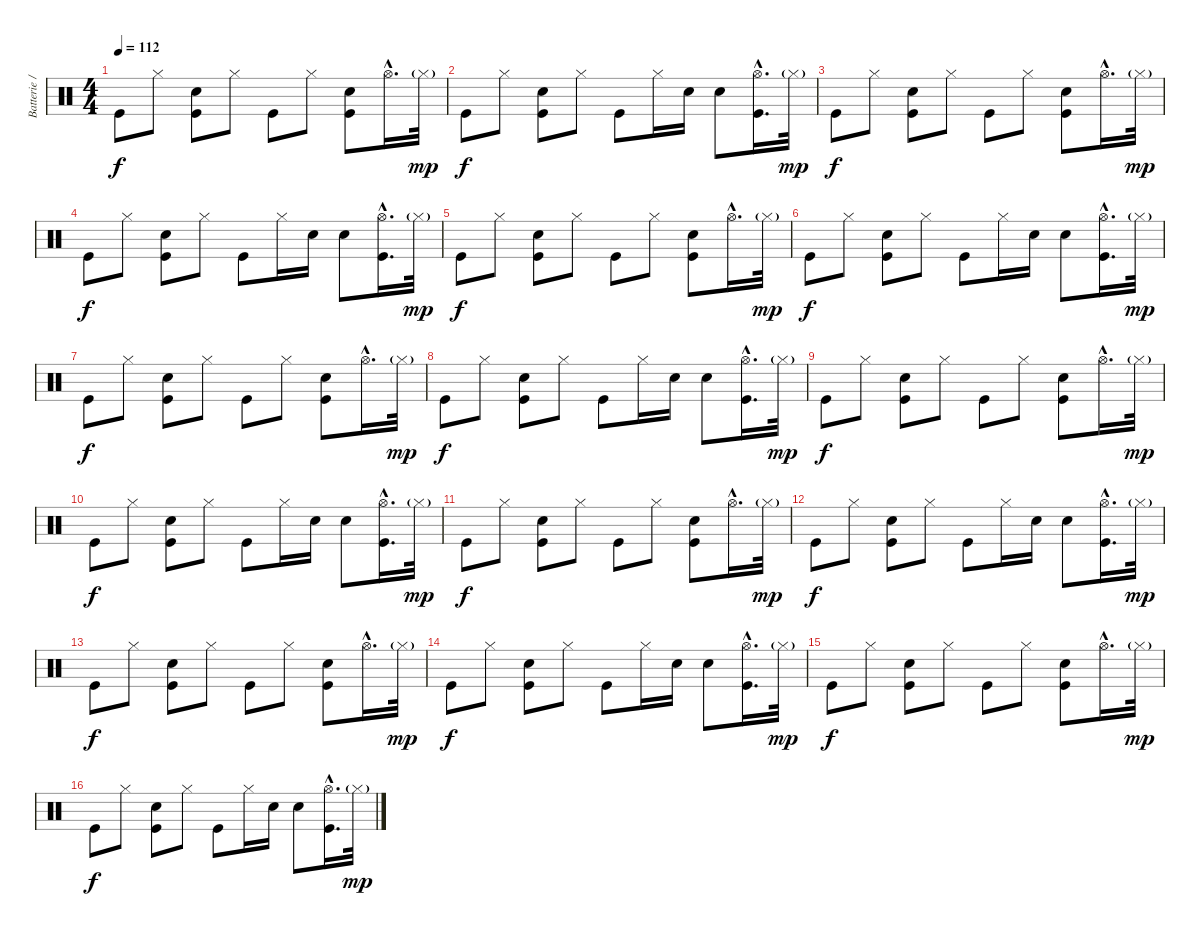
\track ("Batterie // Jerome Dillon" "Batterie /") {instrument percussion}
\staff {score}
\articulation defaults
\ts (4 4)
\tempo 112
\clef neutral
\ks c "Kick (hit)".8{dy f} "Hi-Hat (closed)".8
("Snare (hit) 2" "Kick (hit)").8 "Hi-Hat (closed)".8 "Kick (hit)".8 "Hi-Hat (closed)".8 ("Snare (hit) 2" "Kick (hit)").8 "Hi-Hat (open)"{hac}.16{d} "Hi-Hat (closed)"{g}.32{dy mp} |
"Kick (hit)".8{dy f} "Hi-Hat (closed)".8 ("Snare (hit) 2" "Kick (hit)").8 "Hi-Hat (closed)".8 "Kick (hit)".8 "Hi-Hat (closed)".16 "Snare (hit) 2".16 "Snare (hit) 2".8 ("Hi-Hat (open)"{hac} "Kick (hit)"{hac}).16{d} "Hi-Hat (closed)"{g}.32{dy mp} |
"Kick (hit)".8{dy f} "Hi-Hat (closed)".8 ("Snare (hit) 2" "Kick (hit)").8 "Hi-Hat (closed)".8 "Kick (hit)".8 "Hi-Hat (closed)".8 ("Snare (hit) 2" "Kick (hit)").8 "Hi-Hat (open)"{hac}.16{d} "Hi-Hat (closed)"{g}.32{dy mp} |
"Kick (hit)".8{dy f} "Hi-Hat (closed)".8 ("Snare (hit) 2" "Kick (hit)").8 "Hi-Hat (closed)".8 "Kick (hit)".8 "Hi-Hat (closed)".16 "Snare (hit) 2".16 "Snare (hit) 2".8 ("Hi-Hat (open)"{hac} "Kick (hit)"{hac}).16{d} "Hi-Hat (closed)"{g}.32{dy mp} |
"Kick (hit)".8{dy f} "Hi-Hat (closed)".8 ("Snare (hit) 2" "Kick (hit)").8 "Hi-Hat (closed)".8 "Kick (hit)".8 "Hi-Hat (closed)".8 ("Snare (hit) 2" "Kick (hit)").8 "Hi-Hat (open)"{hac}.16{d} "Hi-Hat (closed)"{g}.32{dy mp} |
"Kick (hit)".8{dy f} "Hi-Hat (closed)".8 ("Snare (hit) 2" "Kick (hit)").8 "Hi-Hat (closed)".8 "Kick (hit)".8 "Hi-Hat (closed)".16 "Snare (hit) 2".16 "Snare (hit) 2".8 ("Hi-Hat (open)"{hac} "Kick (hit)"{hac}).16{d} "Hi-Hat (closed)"{g}.32{dy mp} |
"Kick (hit)".8{dy f} "Hi-Hat (closed)".8 ("Snare (hit) 2" "Kick (hit)").8 "Hi-Hat (closed)".8 "Kick (hit)".8 "Hi-Hat (closed)".8 ("Snare (hit) 2" "Kick (hit)").8 "Hi-Hat (open)"{hac}.16{d} "Hi-Hat (closed)"{g}.32{dy mp} |
"Kick (hit)".8{dy f} "Hi-Hat (closed)".8 ("Snare (hit) 2" "Kick (hit)").8 "Hi-Hat (closed)".8 "Kick (hit)".8 "Hi-Hat (closed)".16 "Snare (hit) 2".16 "Snare (hit) 2".8 ("Hi-Hat (open)"{hac} "Kick (hit)"{hac}).16{d} "Hi-Hat (closed)"{g}.32{dy mp} |
"Kick (hit)".8{dy f} "Hi-Hat (closed)".8 ("Snare (hit) 2" "Kick (hit)").8 "Hi-Hat (closed)".8 "Kick (hit)".8 "Hi-Hat (closed)".8 ("Snare (hit) 2" "Kick (hit)").8 "Hi-Hat (open)"{hac}.16{d} "Hi-Hat (closed)"{g}.32{dy mp} |
"Kick (hit)".8{dy f} "Hi-Hat (closed)".8 ("Snare (hit) 2" "Kick (hit)").8 "Hi-Hat (closed)".8 "Kick (hit)".8 "Hi-Hat (closed)".16 "Snare (hit) 2".16 "Snare (hit) 2".8 ("Hi-Hat (open)"{hac} "Kick (hit)"{hac}).16{d} "Hi-Hat (closed)"{g}.32{dy mp} |
"Kick (hit)".8{dy f} "Hi-Hat (closed)".8 ("Snare (hit) 2" "Kick (hit)").8 "Hi-Hat (closed)".8 "Kick (hit)".8 "Hi-Hat (closed)".8 ("Snare (hit) 2" "Kick (hit)").8 "Hi-Hat (open)"{hac}.16{d} "Hi-Hat (closed)"{g}.32{dy mp} |
"Kick (hit)".8{dy f} "Hi-Hat (closed)".8 ("Snare (hit) 2" "Kick (hit)").8 "Hi-Hat (closed)".8 "Kick (hit)".8 "Hi-Hat (closed)".16 "Snare (hit) 2".16 "Snare (hit) 2".8 ("Hi-Hat (open)"{hac} "Kick (hit)"{hac}).16{d} "Hi-Hat (closed)"{g}.32{dy mp} |
"Kick (hit)".8{dy f} "Hi-Hat (closed)".8 ("Snare (hit) 2" "Kick (hit)").8 "Hi-Hat (closed)".8 "Kick (hit)".8 "Hi-Hat (closed)".8 ("Snare (hit) 2" "Kick (hit)").8 "Hi-Hat (open)"{hac}.16{d} "Hi-Hat (closed)"{g}.32{dy mp} |
"Kick (hit)".8{dy f} "Hi-Hat (closed)".8 ("Snare (hit) 2" "Kick (hit)").8 "Hi-Hat (closed)".8 "Kick (hit)".8 "Hi-Hat (closed)".16 "Snare (hit) 2".16 "Snare (hit) 2".8 ("Hi-Hat (open)"{hac} "Kick (hit)"{hac}).16{d} "Hi-Hat (closed)"{g}.32{dy mp} |
"Kick (hit)".8{dy f} "Hi-Hat (closed)".8 ("Snare (hit) 2" "Kick (hit)").8 "Hi-Hat (closed)".8 "Kick (hit)".8 "Hi-Hat (closed)".8 ("Snare (hit) 2" "Kick (hit)").8 "Hi-Hat (open)"{hac}.16{d} "Hi-Hat (closed)"{g}.32{dy mp} |
"Kick (hit)".8{dy f} "Hi-Hat (closed)".8 ("Snare (hit) 2" "Kick (hit)").8 "Hi-Hat (closed)".8 "Kick (hit)".8 "Hi-Hat (closed)".16 "Snare (hit) 2".16 "Snare (hit) 2".8 ("Hi-Hat (open)"{hac} "Kick (hit)"{hac}).16{d} "Hi-Hat (closed)"{g}.32{dy mp}
